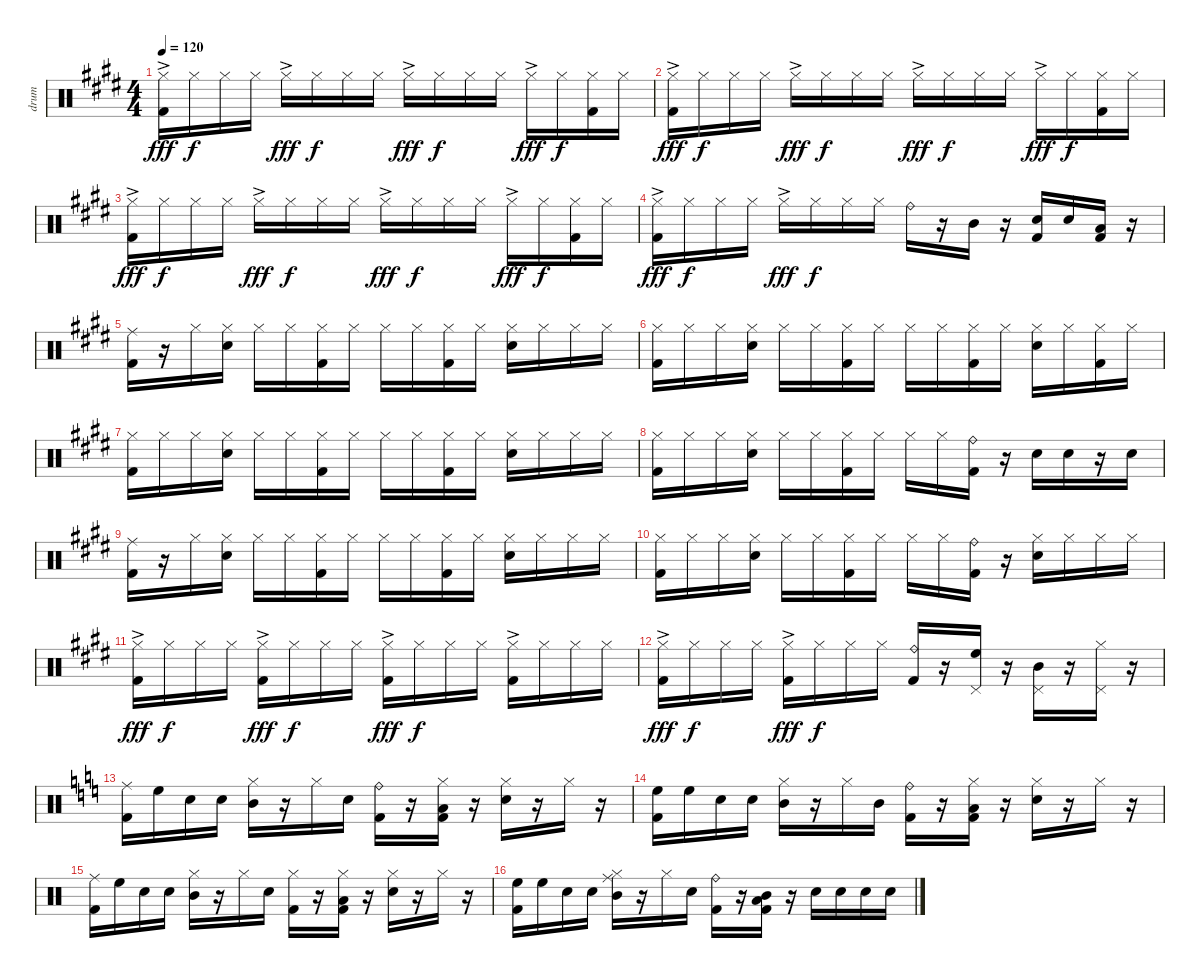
\track ("drum" "drum") {instrument percussion}
\staff {score}
\articulation defaults
\ts (4 4)
\tempo 120
\clef neutral
\ks e
("Kick (hit) 2" "Hi-Hat (closed)"{ac}).16{dy fff} "Hi-Hat (closed)".16{dy f} "Hi-Hat (closed)".16 "Hi-Hat (closed)".16 "Hi-Hat (closed)"{ac}.16{dy fff} "Hi-Hat (closed)".16{dy f} "Hi-Hat (closed)".16 "Hi-Hat (closed)".16 "Hi-Hat (closed)"{ac}.16{dy fff} "Hi-Hat (closed)".16{dy f} "Hi-Hat (closed)".16 "Hi-Hat (closed)".16 "Hi-Hat (closed)"{ac}.16{dy fff} "Hi-Hat (closed)".16{dy f} ("Kick (hit) 2" "Hi-Hat (closed)").16 "Hi-Hat (closed)".16 |
("Kick (hit) 2" "Hi-Hat (closed)"{ac}).16{dy fff} "Hi-Hat (closed)".16{dy f} "Hi-Hat (closed)".16 "Hi-Hat (closed)".16 "Hi-Hat (closed)"{ac}.16{dy fff} "Hi-Hat (closed)".16{dy f} "Hi-Hat (closed)".16 "Hi-Hat (closed)".16 "Hi-Hat (closed)"{ac}.16{dy fff} "Hi-Hat (closed)".16{dy f} "Hi-Hat (closed)".16 "Hi-Hat (closed)".16 "Hi-Hat (closed)"{ac}.16{dy fff} "Hi-Hat (closed)".16{dy f} ("Kick (hit) 2" "Hi-Hat (closed)").16 "Hi-Hat (closed)".16 |
("Kick (hit) 2" "Hi-Hat (closed)"{ac}).16{dy fff} "Hi-Hat (closed)".16{dy f} "Hi-Hat (closed)".16 "Hi-Hat (closed)".16 "Hi-Hat (closed)"{ac}.16{dy fff} "Hi-Hat (closed)".16{dy f} "Hi-Hat (closed)".16 "Hi-Hat (closed)".16 "Hi-Hat (closed)"{ac}.16{dy fff} "Hi-Hat (closed)".16{dy f} "Hi-Hat (closed)".16 "Hi-Hat (closed)".16 "Hi-Hat (closed)"{ac}.16{dy fff} "Hi-Hat (closed)".16{dy f} ("Kick (hit) 2" "Hi-Hat (closed)").16 "Hi-Hat (closed)".16 |
("Kick (hit) 2" "Hi-Hat (closed)"{ac}).16{dy fff} "Hi-Hat (closed)".16{dy f} "Hi-Hat (closed)".16 "Hi-Hat (closed)".16 "Hi-Hat (closed)"{ac}.16{dy fff} "Hi-Hat (closed)".16{dy f} "Hi-Hat (closed)".16 "Hi-Hat (closed)".16 "Ride (bell)".16 r.16 "Mid Tom (hit)".16 r.16 ("Kick (hit) 2" "Snare (hit) 2").16 "Snare (hit) 2".16 ("Kick (hit) 2" "Low Tom (hit)").16 r.16 |
("Kick (hit) 2" "Ride (middle)").16 r.16 "Hi-Hat (closed)".16 ("Snare (hit) 2" "Hi-Hat (closed)").16 "Hi-Hat (closed)".16 "Hi-Hat (closed)".16 ("Kick (hit) 2" "Hi-Hat (closed)").16 "Hi-Hat (closed)".16 "Hi-Hat (closed)".16 "Hi-Hat (closed)".16 ("Kick (hit) 2" "Hi-Hat (closed)").16 "Hi-Hat (closed)".16 ("Snare (hit) 2" "Hi-Hat (closed)").16 "Hi-Hat (closed)".16 "Hi-Hat (closed)".16 "Hi-Hat (closed)".16 |
("Kick (hit) 2" "Hi-Hat (closed)").16 "Hi-Hat (closed)".16 "Hi-Hat (closed)".16 ("Snare (hit) 2" "Hi-Hat (closed)").16 "Hi-Hat (closed)".16 "Hi-Hat (closed)".16 ("Kick (hit) 2" "Hi-Hat (closed)").16 "Hi-Hat (closed)".16 "Hi-Hat (closed)".16 "Hi-Hat (closed)".16 ("Kick (hit) 2" "Hi-Hat (closed)").16 "Hi-Hat (closed)".16 ("Snare (hit) 2" "Hi-Hat (closed)").16 "Hi-Hat (closed)".16 ("Kick (hit) 2" "Hi-Hat (closed)").16 "Hi-Hat (closed)".16 |
("Kick (hit) 2" "Hi-Hat (closed)").16 "Hi-Hat (closed)".16 "Hi-Hat (closed)".16 ("Snare (hit) 2" "Hi-Hat (closed)").16 "Hi-Hat (closed)".16 "Hi-Hat (closed)".16 ("Kick (hit) 2" "Hi-Hat (closed)").16 "Hi-Hat (closed)".16 "Hi-Hat (closed)".16 "Hi-Hat (closed)".16 ("Kick (hit) 2" "Hi-Hat (closed)").16 "Hi-Hat (closed)".16 ("Snare (hit) 2" "Hi-Hat (closed)").16 "Hi-Hat (closed)".16 "Hi-Hat (closed)".16 "Hi-Hat (closed)".16 |
("Kick (hit) 2" "Hi-Hat (closed)").16 "Hi-Hat (closed)".16 "Hi-Hat (closed)".16 ("Snare (hit) 2" "Hi-Hat (closed)").16 "Hi-Hat (closed)".16 "Hi-Hat (closed)".16 ("Kick (hit) 2" "Hi-Hat (closed)").16 "Hi-Hat (closed)".16 "Hi-Hat (closed)".16 "Hi-Hat (closed)".16 ("Kick (hit) 2" "Ride (bell)").16 r.16 "Snare (hit) 2".16 "Snare (hit) 2".16 r.16 "Snare (hit) 2".16 |
("Kick (hit) 2" "Ride (middle)").16 r.16 "Hi-Hat (closed)".16 ("Snare (hit) 2" "Hi-Hat (closed)").16 "Hi-Hat (closed)".16 "Hi-Hat (closed)".16 ("Kick (hit) 2" "Hi-Hat (closed)").16 "Hi-Hat (closed)".16 "Hi-Hat (closed)".16 "Hi-Hat (closed)".16 ("Kick (hit) 2" "Hi-Hat (closed)").16 "Hi-Hat (closed)".16 ("Snare (hit) 2" "Hi-Hat (closed)").16 "Hi-Hat (closed)".16 "Hi-Hat (closed)".16 "Hi-Hat (closed)".16 |
("Kick (hit) 2" "Hi-Hat (closed)").16 "Hi-Hat (closed)".16 "Hi-Hat (closed)".16 ("Snare (hit) 2" "Hi-Hat (closed)").16 "Hi-Hat (closed)".16 "Hi-Hat (closed)".16 ("Kick (hit) 2" "Hi-Hat (closed)").16 "Hi-Hat (closed)".16 "Hi-Hat (closed)".16 "Hi-Hat (closed)".16 ("Kick (hit) 2" "Ride (bell)").16 r.16 ("Snare (hit) 2" "Hi-Hat (closed)").16 "Hi-Hat (closed)".16 "Hi-Hat (closed)".16 "Hi-Hat (closed)".16 |
("Kick (hit) 2" "Hi-Hat (closed)"{ac}).16{dy fff} "Hi-Hat (closed)".16{dy f} "Hi-Hat (closed)".16 "Hi-Hat (closed)".16 ("Kick (hit) 2" "Hi-Hat (closed)"{ac}).16{dy fff} "Hi-Hat (closed)".16{dy f} "Hi-Hat (closed)".16 "Hi-Hat (closed)".16 ("Kick (hit) 2" "Hi-Hat (closed)"{ac}).16{dy fff} "Hi-Hat (closed)".16{dy f} "Hi-Hat (closed)".16 "Hi-Hat (closed)".16 ("Kick (hit) 2" "Hi-Hat (closed)"{ac}).16 "Hi-Hat (closed)".16 "Hi-Hat (closed)".16 "Hi-Hat (closed)".16 |
("Kick (hit) 2" "Hi-Hat (closed)"{ac}).16{dy fff} "Hi-Hat (closed)".16{dy f} "Hi-Hat (closed)".16 "Hi-Hat (closed)".16 ("Kick (hit) 2" "Hi-Hat (closed)"{ac}).16{dy fff} "Hi-Hat (closed)".16{dy f} "Hi-Hat (closed)".16 "Hi-Hat (closed)".16 ("Kick (hit) 2" "Ride (bell)").16 r.16 ("Pedal Hi-Hat (hit)" "High Floor Tom (hit)").16 r.16 ("Pedal Hi-Hat (hit)" "Mid Tom (hit)").16 r.16 ("Pedal Hi-Hat (hit)" "Hi-Hat (closed)").16 r.16 |
\ks c
("Kick (hit) 2" "Ride (middle)").16 "High Floor Tom (hit)".16 "Snare (hit) 2".16 "Snare (hit) 2".16 ("Mid Tom (hit)" "Hi-Hat (closed)").16 r.16 "Hi-Hat (closed)".16 "Snare (hit) 2".16 ("Kick (hit) 2" "Ride (bell)").16 r.16 ("Low Floor Tom (hit)" "Kick (hit) 2" "Hi-Hat (closed)").16 r.16 ("Snare (hit) 2" "Hi-Hat (closed)").16 r.16 "Hi-Hat (closed)".16 r.16 |
("Kick (hit) 2" "High Floor Tom (hit)").16 "High Floor Tom (hit)".16 "Snare (hit) 2".16 "Snare (hit) 2".16 ("Mid Tom (hit)" "Hi-Hat (closed)").16 r.16 "Hi-Hat (closed)".16 "Mid Tom (hit)".16 ("Kick (hit) 2" "Ride (bell)").16 r.16 ("Low Tom (hit)" "Kick (hit) 2" "Hi-Hat (closed)").16 r.16 ("Snare (hit) 2" "Hi-Hat (closed)").16 r.16 "Hi-Hat (closed)".16 r.16 |
("Kick (hit) 2" "Ride (middle)").16 "High Floor Tom (hit)".16 "Snare (hit) 2".16 "Snare (hit) 2".16 ("Mid Tom (hit)" "Hi-Hat (closed)").16 r.16 "Hi-Hat (closed)".16 "Snare (hit) 2".16 ("Kick (hit) 2" "Hi-Hat (closed)").16 r.16 ("Low Floor Tom (hit)" "Kick (hit) 2" "Hi-Hat (closed)").16 r.16 ("Snare (hit) 2" "Hi-Hat (closed)").16 r.16 "Hi-Hat (closed)".16 r.16 |
("Kick (hit) 2" "High Floor Tom (hit)").16 "High Floor Tom (hit)".16 "Snare (hit) 2".16 "Snare (hit) 2".16 ("Ride (middle)" "Mid Tom (hit)" "Hi-Hat (closed)").16 r.16 "Hi-Hat (closed)".16 "Snare (hit) 2".16 ("Kick (hit) 2" "Ride (bell)").16 r.16 ("Low Floor Tom (hit)" "Kick (hit) 2" "Mid Tom (hit)").16 r.16 "Snare (hit) 2".16 "Snare (hit) 2".16 "Snare (hit) 2".16 "Snare (hit) 2".16
